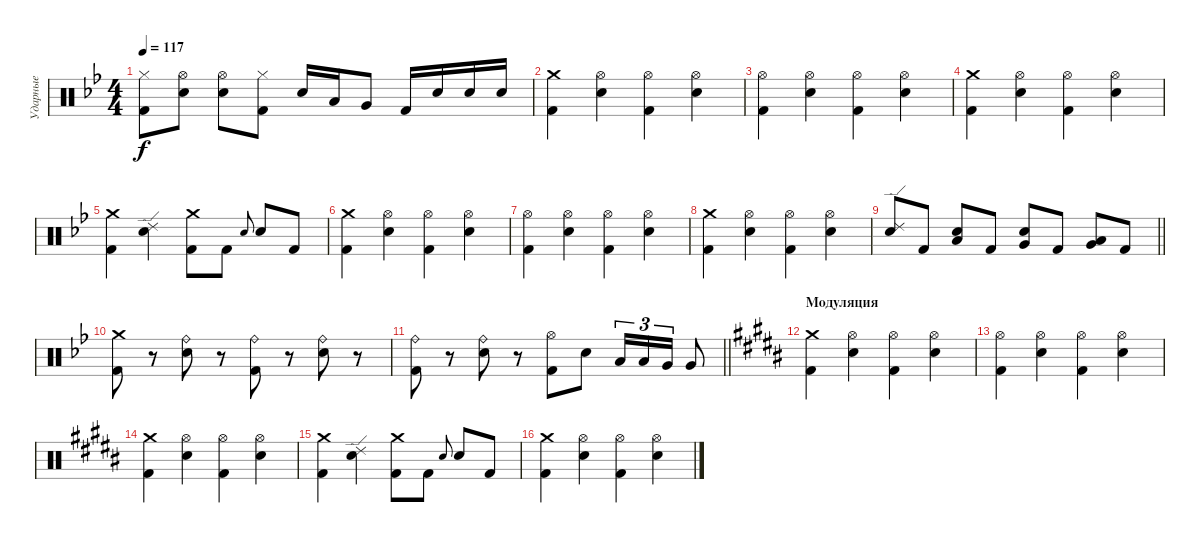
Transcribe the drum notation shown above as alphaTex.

\track ("Ударные" "Ударные") {instrument percussion}
\staff {score}
\articulation defaults
\ts (4 4)
\tempo 117
\clef neutral
\ks gminor
("Hi-Hat (closed)" "Kick (hit) 2").8{dy f} ("Hi-Hat (open)" "Electric Snare (hit)").8 ("Hi-Hat (open)" "Electric Snare (hit)").8 ("Hi-Hat (closed)" "Kick (hit) 2").8 "Electric Snare (hit)".16 "Low Tom (hit)".16 "Very Low Tom (hit)".8 "Kick (hit) 2".16 "Electric Snare (hit)".16 "Electric Snare (hit)".16 "Electric Snare (hit)".16 |
("Crash medium (hit)" "Kick (hit) 2").4 ("Hi-Hat (open)" "Electric Snare (hit)").4 ("Hi-Hat (open)" "Kick (hit) 2").4 ("Hi-Hat (open)" "Electric Snare (hit)").4 |
("Hi-Hat (open)" "Kick (hit) 2").4 ("Hi-Hat (open)" "Electric Snare (hit)").4 ("Hi-Hat (open)" "Kick (hit) 2").4 ("Hi-Hat (open)" "Electric Snare (hit)").4 |
("Crash medium (hit)" "Kick (hit) 2").4 ("Hi-Hat (open)" "Electric Snare (hit)").4 ("Hi-Hat (open)" "Kick (hit) 2").4 ("Hi-Hat (open)" "Electric Snare (hit)").4 |
("Crash medium (hit)" "Kick (hit) 2").4 ("Ride (edge) 2" "Electric Snare (hit)").4 ("Crash medium (hit)" "Kick (hit) 2").8 "Kick (hit) 2".8 "Electric Snare (hit)".8{gr onbeat} "Electric Snare (hit)".8 "Kick (hit) 2".8 |
("Crash medium (hit)" "Kick (hit) 2").4 ("Hi-Hat (open)" "Electric Snare (hit)").4 ("Hi-Hat (open)" "Kick (hit) 2").4 ("Hi-Hat (open)" "Electric Snare (hit)").4 |
("Hi-Hat (open)" "Kick (hit) 2").4 ("Hi-Hat (open)" "Electric Snare (hit)").4 ("Hi-Hat (open)" "Kick (hit) 2").4 ("Hi-Hat (open)" "Electric Snare (hit)").4 |
("Crash medium (hit)" "Kick (hit) 2").4 ("Hi-Hat (open)" "Electric Snare (hit)").4 ("Hi-Hat (open)" "Kick (hit) 2").4 ("Hi-Hat (open)" "Electric Snare (hit)").4 |
\barLineRight lightlight
("Ride (edge) 2" "Electric Snare (hit)").8 "Kick (hit) 2".8 ("Low Tom (hit)" "Electric Snare (hit)").8 "Kick (hit) 2".8 ("Very Low Tom (hit)" "Electric Snare (hit)").8 "Kick (hit) 2".8 ("Very Low Tom (hit)" "Low Tom (hit)").8 "Kick (hit) 2".8 |
("Crash medium (hit)" "Kick (hit) 2").8 r.8 ("Ride (bell)" "Electric Snare (hit)").8 r.8 ("Ride (bell)" "Kick (hit) 2").8 r.8 ("Ride (bell)" "Electric Snare (hit)").8 r.8 |
\barLineRight lightlight
("Ride (bell)" "Kick (hit) 2").8 r.8 ("Ride (bell)" "Electric Snare (hit)").8 r.8 ("Hi-Hat (open)" "Kick (hit) 2").8 "Electric Snare (hit)".8 "Low Tom (hit)".16{tu (3 2)} "Low Tom (hit)".16{tu (3 2)} "Very Low Tom (hit)".16{tu (3 2)} "Very Low Tom (hit)".8 |
\section ("" "Модуляция")
\ks g#minor
("Crash medium (hit)" "Kick (hit) 2").4 ("Hi-Hat (open)" "Electric Snare (hit)").4 ("Hi-Hat (open)" "Kick (hit) 2").4 ("Hi-Hat (open)" "Electric Snare (hit)").4 |
("Hi-Hat (open)" "Kick (hit) 2").4 ("Hi-Hat (open)" "Electric Snare (hit)").4 ("Hi-Hat (open)" "Kick (hit) 2").4 ("Hi-Hat (open)" "Electric Snare (hit)").4 |
("Crash medium (hit)" "Kick (hit) 2").4 ("Hi-Hat (open)" "Electric Snare (hit)").4 ("Hi-Hat (open)" "Kick (hit) 2").4 ("Hi-Hat (open)" "Electric Snare (hit)").4 |
("Crash medium (hit)" "Kick (hit) 2").4 ("Ride (edge) 2" "Electric Snare (hit)").4 ("Crash medium (hit)" "Kick (hit) 2").8 "Kick (hit) 2".8 "Electric Snare (hit)".8{gr onbeat} "Electric Snare (hit)".8 "Kick (hit) 2".8 |
("Crash medium (hit)" "Kick (hit) 2").4 ("Hi-Hat (open)" "Electric Snare (hit)").4 ("Hi-Hat (open)" "Kick (hit) 2").4 ("Hi-Hat (open)" "Electric Snare (hit)").4
